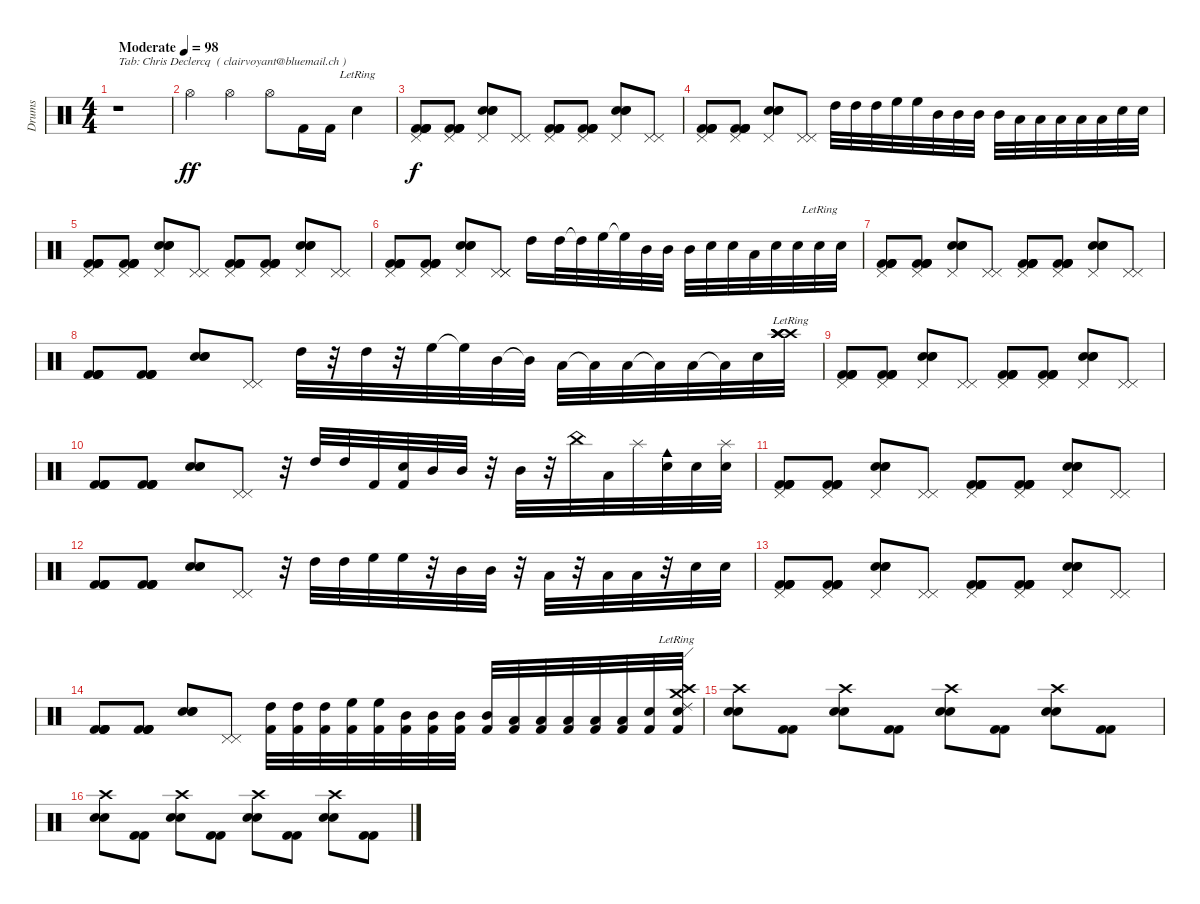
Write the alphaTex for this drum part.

\track ("Drums" "Drums") {instrument percussion}
\staff {score}
\articulation defaults
\ts (4 4)
\tempo (98 "Moderate")
\clef neutral
\ks c
r.1{txt "Tab: Chris Declercq  ( clairvoyant@bluemail.ch )" dy ff} |
"Hi-Hat (open)".4 "Hi-Hat (open)".4 "Hi-Hat (open)".8 "Kick (hit) 2".16 "Kick (hit) 2".16 "Electric Snare (hit)"{lr}.4 |
("Pedal Hi-Hat (hit)" "Kick (hit) 2" "Kick (hit) 2" "Kick (hit) 2" "Kick (hit) 2").8{dy f} ("Pedal Hi-Hat (hit)" "Kick (hit) 2" "Kick (hit) 2" "Kick (hit) 2" "Kick (hit) 2").8 ("Pedal Hi-Hat (hit)" "Electric Snare (hit)" "Electric Snare (hit)" "Electric Snare (hit)").8 ("Pedal Hi-Hat (hit)" "Pedal Hi-Hat (hit)").8 ("Pedal Hi-Hat (hit)" "Kick (hit) 2" "Kick (hit) 2" "Kick (hit) 2" "Kick (hit) 2").8 ("Pedal Hi-Hat (hit)" "Kick (hit) 2" "Kick (hit) 2" "Kick (hit) 2" "Kick (hit) 2").8 ("Pedal Hi-Hat (hit)" "Electric Snare (hit)" "Electric Snare (hit)" "Electric Snare (hit)").8 ("Pedal Hi-Hat (hit)" "Pedal Hi-Hat (hit)").8 |
("Pedal Hi-Hat (hit)" "Kick (hit) 2" "Kick (hit) 2" "Kick (hit) 2" "Kick (hit) 2").8 ("Pedal Hi-Hat (hit)" "Kick (hit) 2" "Kick (hit) 2" "Kick (hit) 2" "Kick (hit) 2").8 ("Pedal Hi-Hat (hit)" "Electric Snare (hit)" "Electric Snare (hit)" "Electric Snare (hit)").8 ("Pedal Hi-Hat (hit)" "Pedal Hi-Hat (hit)").8 "High Tom (hit)".32 "High Tom (hit)".32 "High Tom (hit)".32 "High Floor Tom (hit)".32 "High Floor Tom (hit)".32 "Mid Tom (hit)".32 "Mid Tom (hit)".32 "Mid Tom (hit)".32 "Mid Tom (hit)".32 "Low Tom (hit)".32 "Low Tom (hit)".32 "Low Tom (hit)".32 "Low Floor Tom (hit)".32 "Low Floor Tom (hit)".32 "Electric Snare (hit)".32 "Electric Snare (hit)".32 |
("Pedal Hi-Hat (hit)" "Kick (hit) 2" "Kick (hit) 2" "Kick (hit) 2" "Kick (hit) 2").8 ("Pedal Hi-Hat (hit)" "Kick (hit) 2" "Kick (hit) 2" "Kick (hit) 2" "Kick (hit) 2").8 ("Pedal Hi-Hat (hit)" "Electric Snare (hit)" "Electric Snare (hit)" "Electric Snare (hit)").8 ("Pedal Hi-Hat (hit)" "Pedal Hi-Hat (hit)").8 ("Pedal Hi-Hat (hit)" "Kick (hit) 2" "Kick (hit) 2" "Kick (hit) 2" "Kick (hit) 2").8 ("Pedal Hi-Hat (hit)" "Kick (hit) 2" "Kick (hit) 2" "Kick (hit) 2" "Kick (hit) 2").8 ("Pedal Hi-Hat (hit)" "Electric Snare (hit)" "Electric Snare (hit)" "Electric Snare (hit)").8 ("Pedal Hi-Hat (hit)" "Pedal Hi-Hat (hit)").8 |
("Pedal Hi-Hat (hit)" "Kick (hit) 2" "Kick (hit) 2" "Kick (hit) 2" "Kick (hit) 2").8 ("Pedal Hi-Hat (hit)" "Kick (hit) 2" "Kick (hit) 2" "Kick (hit) 2" "Kick (hit) 2").8 ("Pedal Hi-Hat (hit)" "Electric Snare (hit)" "Electric Snare (hit)" "Electric Snare (hit)").8 ("Pedal Hi-Hat (hit)" "Pedal Hi-Hat (hit)" "Pedal Hi-Hat (hit)").8 "High Tom (hit)".16 "High Tom (hit)".32 "High Tom (hit)"{t}.32 "High Floor Tom (hit)".32 "High Floor Tom (hit)"{t}.32 "Mid Tom (hit)".32 "Mid Tom (hit)".32 "Mid Tom (hit)".32 "Snare (hit) 2".32 "Snare (hit) 2".32 "Low Tom (hit)".32 "Snare (hit) 2".32 "Electric Snare (hit)".32 "Snare (hit) 2"{lr}.32 "Snare (hit) 2".32 |
("Pedal Hi-Hat (hit)" "Kick (hit) 2" "Kick (hit) 2" "Kick (hit) 2" "Kick (hit) 2").8 ("Pedal Hi-Hat (hit)" "Kick (hit) 2" "Kick (hit) 2" "Kick (hit) 2" "Kick (hit) 2").8 ("Pedal Hi-Hat (hit)" "Electric Snare (hit)" "Electric Snare (hit)" "Electric Snare (hit)").8 ("Pedal Hi-Hat (hit)" "Pedal Hi-Hat (hit)").8 ("Pedal Hi-Hat (hit)" "Kick (hit) 2" "Kick (hit) 2" "Kick (hit) 2" "Kick (hit) 2").8 ("Pedal Hi-Hat (hit)" "Kick (hit) 2" "Kick (hit) 2" "Kick (hit) 2" "Kick (hit) 2").8 ("Pedal Hi-Hat (hit)" "Electric Snare (hit)" "Electric Snare (hit)" "Electric Snare (hit)").8 ("Pedal Hi-Hat (hit)" "Pedal Hi-Hat (hit)").8 |
("Kick (hit) 2" "Kick (hit) 2" "Kick (hit) 2" "Kick (hit) 2").8 ("Kick (hit) 2" "Kick (hit) 2" "Kick (hit) 2" "Kick (hit) 2").8 ("Electric Snare (hit)" "Electric Snare (hit)" "Electric Snare (hit)").8 ("Pedal Hi-Hat (hit)" "Pedal Hi-Hat (hit)").8 "High Tom (hit)".32 r.32 "High Tom (hit)".32 r.32 "High Floor Tom (hit)".32 "High Floor Tom (hit)"{t}.32 "Mid Tom (hit)".32 "Mid Tom (hit)"{t}.32 "Low Tom (hit)".32 "Low Tom (hit)"{t}.32 "Low Tom (hit)".32 "Low Tom (hit)"{t}.32 "Low Floor Tom (hit)".32 "Low Floor Tom (hit)"{t}.32 "Electric Snare (hit)".32 ("Crash high (hit)"{lr} "Crash high (hit)"{lr} "Crash high (hit)"{lr} "Crash high (hit)"{lr}).32 |
("Pedal Hi-Hat (hit)" "Kick (hit) 2" "Kick (hit) 2" "Kick (hit) 2" "Kick (hit) 2").8 ("Pedal Hi-Hat (hit)" "Kick (hit) 2" "Kick (hit) 2" "Kick (hit) 2" "Kick (hit) 2").8 ("Pedal Hi-Hat (hit)" "Electric Snare (hit)" "Electric Snare (hit)" "Electric Snare (hit)").8 ("Pedal Hi-Hat (hit)" "Pedal Hi-Hat (hit)").8 ("Pedal Hi-Hat (hit)" "Kick (hit) 2" "Kick (hit) 2" "Kick (hit) 2" "Kick (hit) 2").8 ("Pedal Hi-Hat (hit)" "Kick (hit) 2" "Kick (hit) 2" "Kick (hit) 2" "Kick (hit) 2").8 ("Pedal Hi-Hat (hit)" "Electric Snare (hit)" "Electric Snare (hit)" "Electric Snare (hit)").8 ("Pedal Hi-Hat (hit)" "Pedal Hi-Hat (hit)").8 |
("Kick (hit) 2" "Kick (hit) 2" "Kick (hit) 2" "Kick (hit) 2").8 ("Kick (hit) 2" "Kick (hit) 2" "Kick (hit) 2" "Kick (hit) 2").8 ("Electric Snare (hit)" "Electric Snare (hit)" "Electric Snare (hit)").8 ("Pedal Hi-Hat (hit)" "Pedal Hi-Hat (hit)").8 r.32 "High Tom (hit)".32 "High Tom (hit)".32 "Kick (hit) 2".32 ("Electric Snare (hit)" "Kick (hit) 2").32 "Mid Tom (hit)".32 "Mid Tom (hit)".32 r.32 "Mid Tom (hit)".32 r.32 "China (hit)".32 "Low Tom (hit)".32 "Splash (hit)".32 ("Electric Snare (hit)" "Cowbell medium (hit)").32 "Electric Snare (hit)".32 ("Splash (hit)" "Electric Snare (hit)").32 |
("Pedal Hi-Hat (hit)" "Kick (hit) 2" "Kick (hit) 2" "Kick (hit) 2" "Kick (hit) 2").8 ("Pedal Hi-Hat (hit)" "Kick (hit) 2" "Kick (hit) 2" "Kick (hit) 2" "Kick (hit) 2").8 ("Pedal Hi-Hat (hit)" "Electric Snare (hit)" "Electric Snare (hit)" "Electric Snare (hit)").8 ("Pedal Hi-Hat (hit)" "Pedal Hi-Hat (hit)").8 ("Pedal Hi-Hat (hit)" "Kick (hit) 2" "Kick (hit) 2" "Kick (hit) 2" "Kick (hit) 2").8 ("Pedal Hi-Hat (hit)" "Kick (hit) 2" "Kick (hit) 2" "Kick (hit) 2" "Kick (hit) 2").8 ("Pedal Hi-Hat (hit)" "Electric Snare (hit)" "Electric Snare (hit)" "Electric Snare (hit)").8 ("Pedal Hi-Hat (hit)" "Pedal Hi-Hat (hit)").8 |
("Kick (hit) 2" "Kick (hit) 2" "Kick (hit) 2" "Kick (hit) 2").8 ("Kick (hit) 2" "Kick (hit) 2" "Kick (hit) 2" "Kick (hit) 2").8 ("Electric Snare (hit)" "Electric Snare (hit)" "Electric Snare (hit)").8 ("Pedal Hi-Hat (hit)" "Pedal Hi-Hat (hit)").8 r.32 "High Tom (hit)".32 "High Tom (hit)".32 "High Floor Tom (hit)".32 "High Floor Tom (hit)".32 r.32 "Mid Tom (hit)".32 "Mid Tom (hit)".32 r.32 "Low Floor Tom (hit)".32 r.32 "Low Tom (hit)".32 "Low Floor Tom (hit)".32 r.32 "Electric Snare (hit)".32 "Electric Snare (hit)".32 |
("Pedal Hi-Hat (hit)" "Kick (hit) 2" "Kick (hit) 2" "Kick (hit) 2" "Kick (hit) 2").8 ("Pedal Hi-Hat (hit)" "Kick (hit) 2" "Kick (hit) 2" "Kick (hit) 2" "Kick (hit) 2").8 ("Pedal Hi-Hat (hit)" "Electric Snare (hit)" "Electric Snare (hit)" "Electric Snare (hit)").8 ("Pedal Hi-Hat (hit)" "Pedal Hi-Hat (hit)").8 ("Pedal Hi-Hat (hit)" "Kick (hit) 2" "Kick (hit) 2" "Kick (hit) 2" "Kick (hit) 2").8 ("Pedal Hi-Hat (hit)" "Kick (hit) 2" "Kick (hit) 2" "Kick (hit) 2" "Kick (hit) 2").8 ("Pedal Hi-Hat (hit)" "Electric Snare (hit)" "Electric Snare (hit)" "Electric Snare (hit)").8 ("Pedal Hi-Hat (hit)" "Pedal Hi-Hat (hit)").8 |
("Kick (hit) 2" "Kick (hit) 2" "Kick (hit) 2" "Kick (hit) 2").8 ("Kick (hit) 2" "Kick (hit) 2" "Kick (hit) 2" "Kick (hit) 2").8 ("Electric Snare (hit)" "Electric Snare (hit)" "Electric Snare (hit)").8 ("Pedal Hi-Hat (hit)" "Pedal Hi-Hat (hit)").8 ("Kick (hit) 2" "High Tom (hit)").32 ("Kick (hit) 2" "High Tom (hit)").32 ("Kick (hit) 2" "High Tom (hit)").32 ("Kick (hit) 2" "High Floor Tom (hit)").32 ("Kick (hit) 2" "High Floor Tom (hit)").32 ("Kick (hit) 2" "Mid Tom (hit)").32 ("Kick (hit) 2" "Mid Tom (hit)").32 ("Kick (hit) 2" "Mid Tom (hit)").32 ("Kick (hit) 2" "Mid Tom (hit)").32 ("Kick (hit) 2" "Low Tom (hit)").32 ("Kick (hit) 2" "Low Tom (hit)").32 ("Kick (hit) 2" "Low Tom (hit)").32 ("Kick (hit) 2" "Low Floor Tom (hit)").32 ("Kick (hit) 2" "Low Floor Tom (hit)").32 ("Kick (hit) 2" "Electric Snare (hit)").32 ("Kick (hit) 2"{lr} "Electric Snare (hit)"{lr} "Crash high (hit)"{lr} "Crash medium (hit)"{lr} "Ride (edge) 2"{lr}).32 |
("Crash high (hit)" "Electric Snare (hit)" "Electric Snare (hit)").8 ("Kick (hit) 2" "Kick (hit) 2").8 ("Crash high (hit)" "Electric Snare (hit)" "Electric Snare (hit)").8 ("Kick (hit) 2" "Kick (hit) 2").8 ("Crash high (hit)" "Electric Snare (hit)" "Electric Snare (hit)").8 ("Kick (hit) 2" "Kick (hit) 2").8 ("Crash high (hit)" "Electric Snare (hit)" "Electric Snare (hit)").8 ("Kick (hit) 2" "Kick (hit) 2").8 |
("Crash high (hit)" "Electric Snare (hit)" "Electric Snare (hit)").8 ("Kick (hit) 2" "Kick (hit) 2").8 ("Crash high (hit)" "Electric Snare (hit)" "Electric Snare (hit)").8 ("Kick (hit) 2" "Kick (hit) 2").8 ("Crash high (hit)" "Electric Snare (hit)" "Electric Snare (hit)").8 ("Kick (hit) 2" "Kick (hit) 2").8 ("Crash high (hit)" "Electric Snare (hit)" "Electric Snare (hit)").8 ("Kick (hit) 2" "Kick (hit) 2").8
